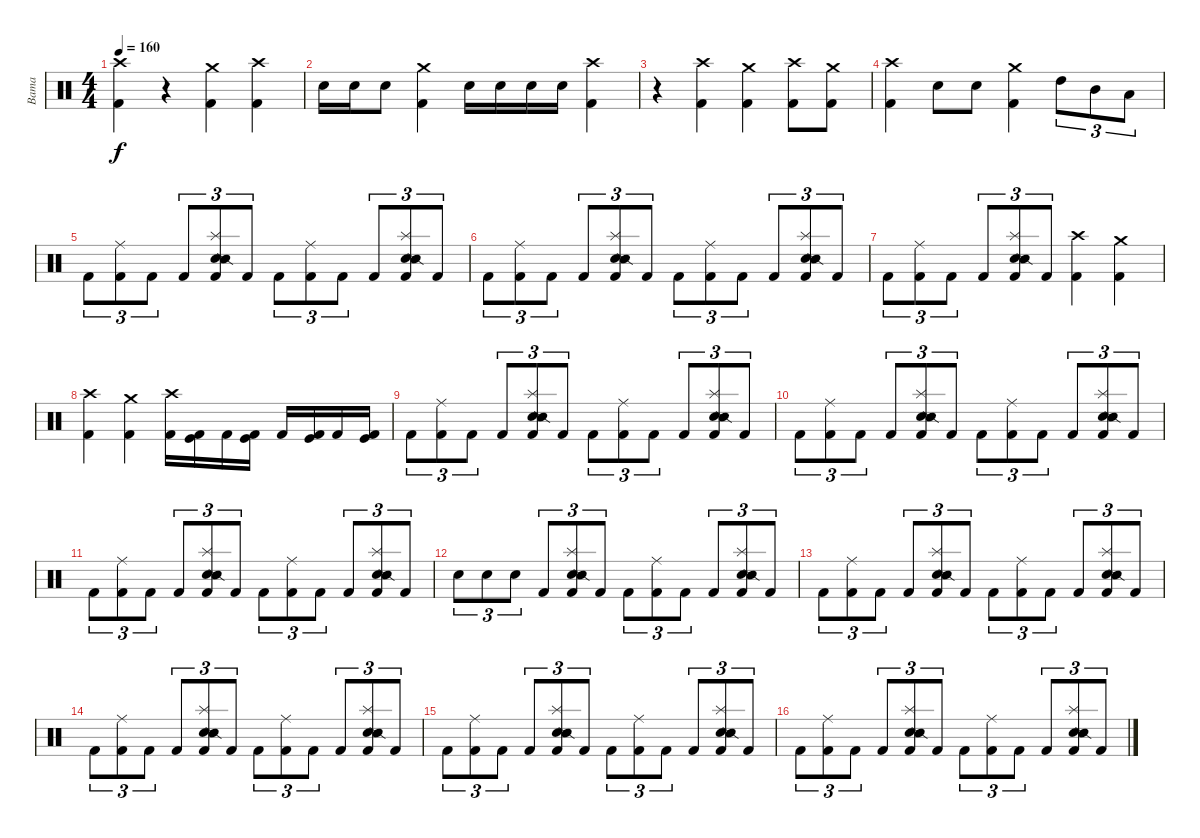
\track ("Bama" "Bama") {instrument percussion}
\staff {score}
\articulation defaults
\ts (4 4)
\tempo 160
\clef neutral
\ks c
("Crash high (hit)" "Kick (hit) 2").4{dy f} r.4 ("Crash medium (hit)" "Kick (hit) 2").4 ("Crash high (hit)" "Kick (hit) 2").4 |
"Electric Snare (hit)".16 "Electric Snare (hit)".16 "Electric Snare (hit)".8 ("Crash medium (hit)" "Kick (hit) 2").4 "Electric Snare (hit)".16 "Electric Snare (hit)".16 "Electric Snare (hit)".16 "Electric Snare (hit)".16 ("Crash high (hit)" "Kick (hit) 2").4 |
r.4 ("Crash high (hit)" "Kick (hit) 2").4 ("Crash medium (hit)" "Kick (hit) 2").4 ("Crash high (hit)" "Kick (hit) 2").8 ("Crash medium (hit)" "Kick (hit) 2").8 |
("Crash high (hit)" "Kick (hit) 2").4 "Electric Snare (hit)".8 "Electric Snare (hit)".8 ("Crash medium (hit)" "Kick (hit) 2").4 "High Tom (hit)".8{tu (3 2)} "Mid Tom (hit)".8{tu (3 2)} "Low Tom (hit)".8{tu (3 2)} |
"Kick (hit) 2".8{tu (3 2)} ("Ride (middle)" "Kick (hit) 2").8{tu (3 2)} "Kick (hit) 2".8{tu (3 2)} "Kick (hit) 2".8{tu (3 2)} ("Splash (hit)" "Electric Snare (hit)" "Snare (side stick) 2" "Kick (hit) 2").8{tu (3 2)} "Kick (hit) 2".8{tu (3 2)} "Kick (hit) 2".8{tu (3 2)} ("Ride (middle)" "Kick (hit) 2").8{tu (3 2)} "Kick (hit) 2".8{tu (3 2)} "Kick (hit) 2".8{tu (3 2)} ("Splash (hit)" "Electric Snare (hit)" "Snare (side stick) 2" "Kick (hit) 2").8{tu (3 2)} "Kick (hit) 2".8{tu (3 2)} |
"Kick (hit) 2".8{tu (3 2)} ("Ride (middle)" "Kick (hit) 2").8{tu (3 2)} "Kick (hit) 2".8{tu (3 2)} "Kick (hit) 2".8{tu (3 2)} ("Splash (hit)" "Electric Snare (hit)" "Snare (side stick) 2" "Kick (hit) 2").8{tu (3 2)} "Kick (hit) 2".8{tu (3 2)} "Kick (hit) 2".8{tu (3 2)} ("Ride (middle)" "Kick (hit) 2").8{tu (3 2)} "Kick (hit) 2".8{tu (3 2)} "Kick (hit) 2".8{tu (3 2)} ("Splash (hit)" "Electric Snare (hit)" "Snare (side stick) 2" "Kick (hit) 2").8{tu (3 2)} "Kick (hit) 2".8{tu (3 2)} |
"Kick (hit) 2".8{tu (3 2)} ("Ride (middle)" "Kick (hit) 2").8{tu (3 2)} "Kick (hit) 2".8{tu (3 2)} "Kick (hit) 2".8{tu (3 2)} ("Splash (hit)" "Electric Snare (hit)" "Snare (side stick) 2" "Kick (hit) 2").8{tu (3 2)} "Kick (hit) 2".8{tu (3 2)} ("Crash high (hit)" "Kick (hit) 2").4 ("Crash medium (hit)" "Kick (hit) 2").4 |
("Crash high (hit)" "Kick (hit) 2").4 ("Crash medium (hit)" "Kick (hit) 2").4 ("Crash high (hit)" "Kick (hit) 2").16 ("Kick (hit)" "Kick (hit) 2").16 "Kick (hit) 2".16 ("Kick (hit)" "Kick (hit) 2").16 "Kick (hit) 2".16 ("Kick (hit)" "Kick (hit) 2").16 "Kick (hit) 2".16 ("Kick (hit)" "Kick (hit) 2").16 |
"Kick (hit) 2".8{tu (3 2)} ("Ride (middle)" "Kick (hit) 2").8{tu (3 2)} "Kick (hit) 2".8{tu (3 2)} "Kick (hit) 2".8{tu (3 2)} ("Splash (hit)" "Electric Snare (hit)" "Snare (side stick) 2" "Kick (hit) 2").8{tu (3 2)} "Kick (hit) 2".8{tu (3 2)} "Kick (hit) 2".8{tu (3 2)} ("Ride (middle)" "Kick (hit) 2").8{tu (3 2)} "Kick (hit) 2".8{tu (3 2)} "Kick (hit) 2".8{tu (3 2)} ("Splash (hit)" "Electric Snare (hit)" "Snare (side stick) 2" "Kick (hit) 2").8{tu (3 2)} "Kick (hit) 2".8{tu (3 2)} |
"Kick (hit) 2".8{tu (3 2)} ("Ride (middle)" "Kick (hit) 2").8{tu (3 2)} "Kick (hit) 2".8{tu (3 2)} "Kick (hit) 2".8{tu (3 2)} ("Splash (hit)" "Electric Snare (hit)" "Snare (side stick) 2" "Kick (hit) 2").8{tu (3 2)} "Kick (hit) 2".8{tu (3 2)} "Kick (hit) 2".8{tu (3 2)} ("Ride (middle)" "Kick (hit) 2").8{tu (3 2)} "Kick (hit) 2".8{tu (3 2)} "Kick (hit) 2".8{tu (3 2)} ("Splash (hit)" "Electric Snare (hit)" "Snare (side stick) 2" "Kick (hit) 2").8{tu (3 2)} "Kick (hit) 2".8{tu (3 2)} |
"Kick (hit) 2".8{tu (3 2)} ("Ride (middle)" "Kick (hit) 2").8{tu (3 2)} "Kick (hit) 2".8{tu (3 2)} "Kick (hit) 2".8{tu (3 2)} ("Splash (hit)" "Electric Snare (hit)" "Snare (side stick) 2" "Kick (hit) 2").8{tu (3 2)} "Kick (hit) 2".8{tu (3 2)} "Kick (hit) 2".8{tu (3 2)} ("Ride (middle)" "Kick (hit) 2").8{tu (3 2)} "Kick (hit) 2".8{tu (3 2)} "Kick (hit) 2".8{tu (3 2)} ("Splash (hit)" "Electric Snare (hit)" "Snare (side stick) 2" "Kick (hit) 2").8{tu (3 2)} "Kick (hit) 2".8{tu (3 2)} |
"Electric Snare (hit)".8{tu (3 2)} "Electric Snare (hit)".8{tu (3 2)} "Electric Snare (hit)".8{tu (3 2)} "Kick (hit) 2".8{tu (3 2)} ("Splash (hit)" "Electric Snare (hit)" "Snare (side stick) 2" "Kick (hit) 2").8{tu (3 2)} "Kick (hit) 2".8{tu (3 2)} "Kick (hit) 2".8{tu (3 2)} ("Ride (middle)" "Kick (hit) 2").8{tu (3 2)} "Kick (hit) 2".8{tu (3 2)} "Kick (hit) 2".8{tu (3 2)} ("Splash (hit)" "Electric Snare (hit)" "Snare (side stick) 2" "Kick (hit) 2").8{tu (3 2)} "Kick (hit) 2".8{tu (3 2)} |
"Kick (hit) 2".8{tu (3 2)} ("Ride (middle)" "Kick (hit) 2").8{tu (3 2)} "Kick (hit) 2".8{tu (3 2)} "Kick (hit) 2".8{tu (3 2)} ("Splash (hit)" "Electric Snare (hit)" "Snare (side stick) 2" "Kick (hit) 2").8{tu (3 2)} "Kick (hit) 2".8{tu (3 2)} "Kick (hit) 2".8{tu (3 2)} ("Ride (middle)" "Kick (hit) 2").8{tu (3 2)} "Kick (hit) 2".8{tu (3 2)} "Kick (hit) 2".8{tu (3 2)} ("Splash (hit)" "Electric Snare (hit)" "Snare (side stick) 2" "Kick (hit) 2").8{tu (3 2)} "Kick (hit) 2".8{tu (3 2)} |
"Kick (hit) 2".8{tu (3 2)} ("Ride (middle)" "Kick (hit) 2").8{tu (3 2)} "Kick (hit) 2".8{tu (3 2)} "Kick (hit) 2".8{tu (3 2)} ("Splash (hit)" "Electric Snare (hit)" "Snare (side stick) 2" "Kick (hit) 2").8{tu (3 2)} "Kick (hit) 2".8{tu (3 2)} "Kick (hit) 2".8{tu (3 2)} ("Ride (middle)" "Kick (hit) 2").8{tu (3 2)} "Kick (hit) 2".8{tu (3 2)} "Kick (hit) 2".8{tu (3 2)} ("Splash (hit)" "Electric Snare (hit)" "Snare (side stick) 2" "Kick (hit) 2").8{tu (3 2)} "Kick (hit) 2".8{tu (3 2)} |
"Kick (hit) 2".8{tu (3 2)} ("Ride (middle)" "Kick (hit) 2").8{tu (3 2)} "Kick (hit) 2".8{tu (3 2)} "Kick (hit) 2".8{tu (3 2)} ("Splash (hit)" "Electric Snare (hit)" "Snare (side stick) 2" "Kick (hit) 2").8{tu (3 2)} "Kick (hit) 2".8{tu (3 2)} "Kick (hit) 2".8{tu (3 2)} ("Ride (middle)" "Kick (hit) 2").8{tu (3 2)} "Kick (hit) 2".8{tu (3 2)} "Kick (hit) 2".8{tu (3 2)} ("Splash (hit)" "Electric Snare (hit)" "Snare (side stick) 2" "Kick (hit) 2").8{tu (3 2)} "Kick (hit) 2".8{tu (3 2)} |
"Kick (hit) 2".8{tu (3 2)} ("Ride (middle)" "Kick (hit) 2").8{tu (3 2)} "Kick (hit) 2".8{tu (3 2)} "Kick (hit) 2".8{tu (3 2)} ("Splash (hit)" "Electric Snare (hit)" "Snare (side stick) 2" "Kick (hit) 2").8{tu (3 2)} "Kick (hit) 2".8{tu (3 2)} "Kick (hit) 2".8{tu (3 2)} ("Ride (middle)" "Kick (hit) 2").8{tu (3 2)} "Kick (hit) 2".8{tu (3 2)} "Kick (hit) 2".8{tu (3 2)} ("Splash (hit)" "Electric Snare (hit)" "Snare (side stick) 2" "Kick (hit) 2").8{tu (3 2)} "Kick (hit) 2".8{tu (3 2)}
